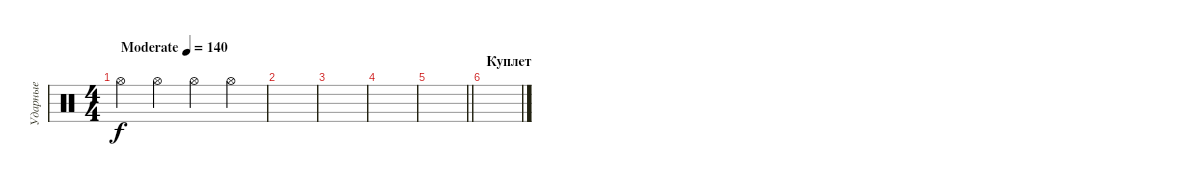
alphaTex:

\track ("Ударные" "Ударные") {instrument percussion}
\staff {score}
\articulation defaults
\ts (4 4)
\tempo (140 "Moderate")
\clef neutral
\ks c "Hi-Hat (open)".4{dy f} "Hi-Hat (open)".4 "Hi-Hat (open)".4 "Hi-Hat (open)".4
|
|
|
|
\barLineRight lightlight
|
\section ("" "Куплет")
